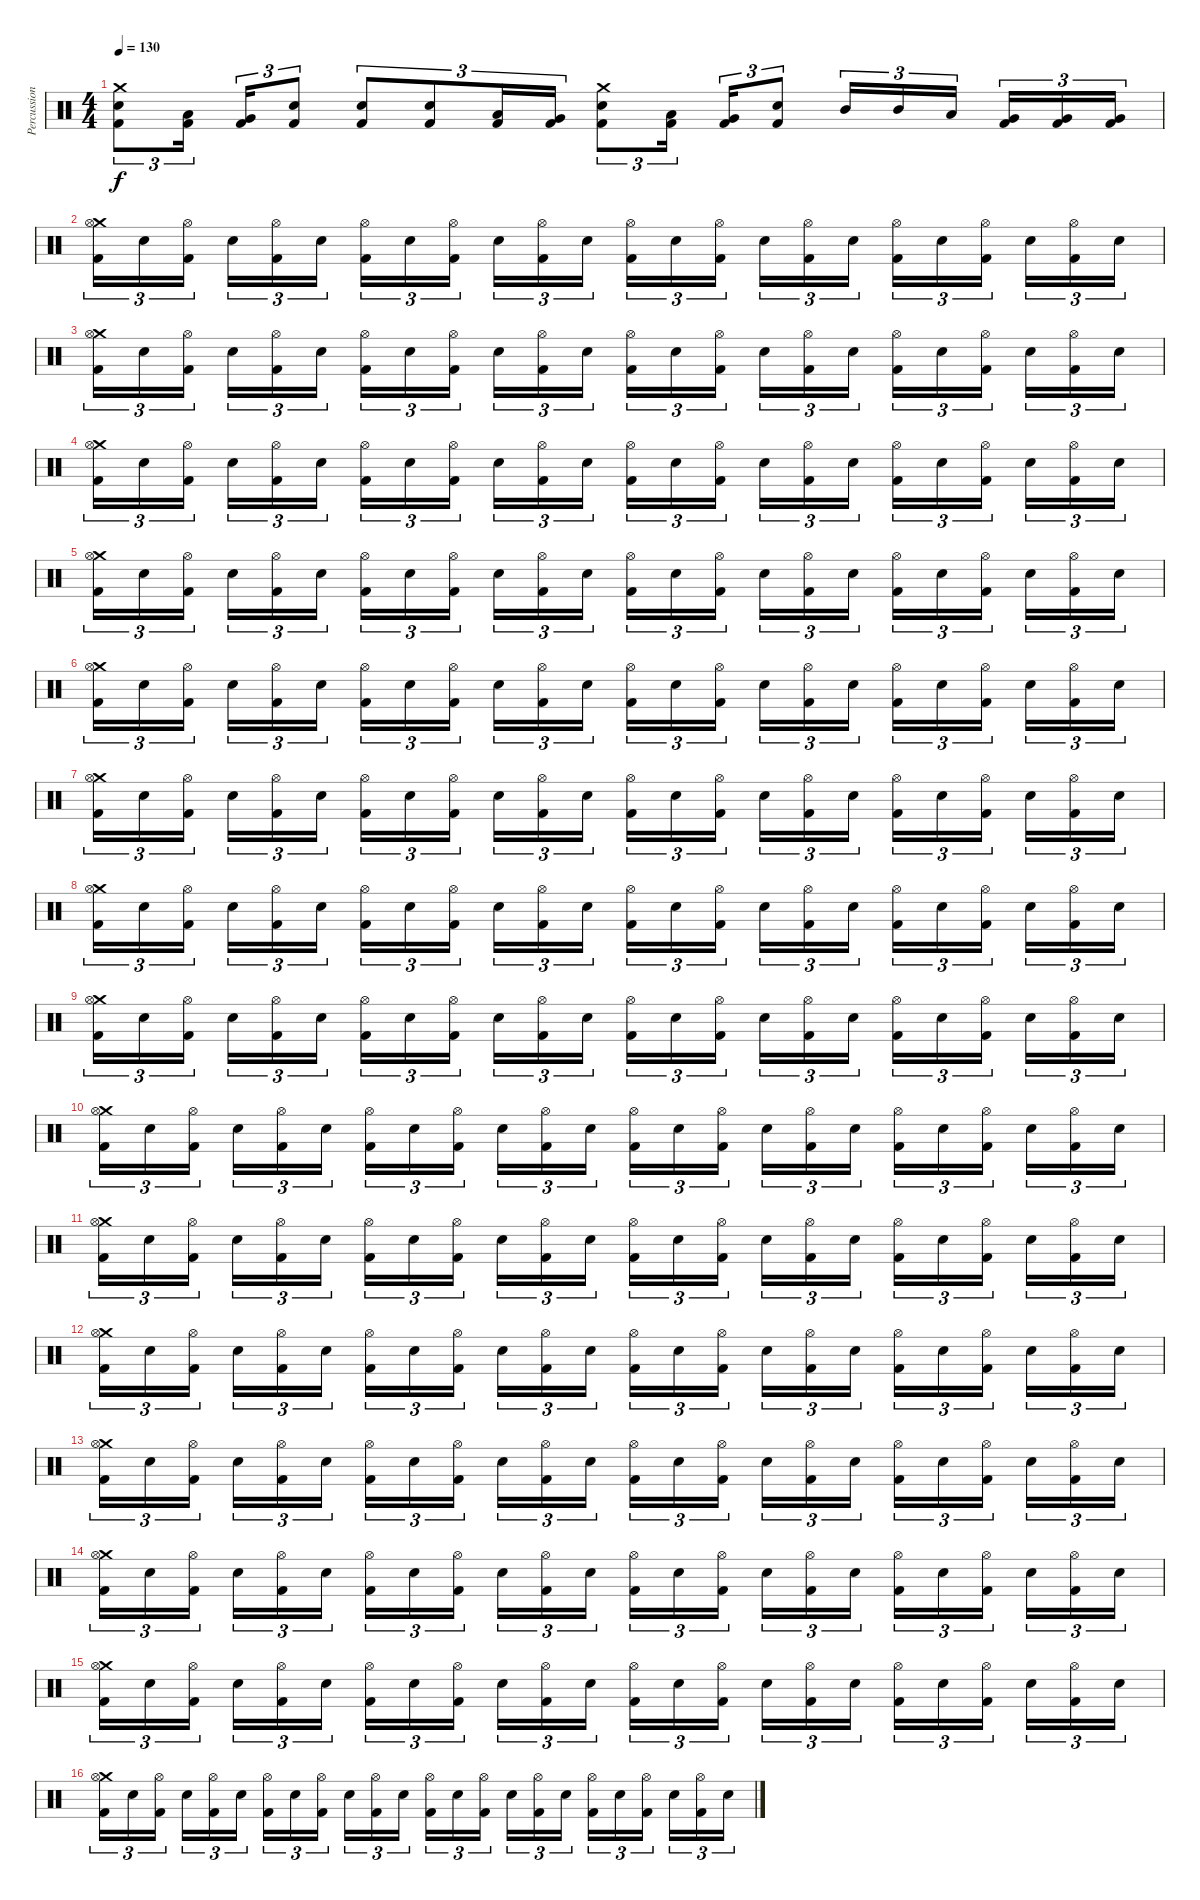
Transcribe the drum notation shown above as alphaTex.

\track ("Percussion" "Percussion") {instrument percussion}
\staff {score}
\articulation defaults
\ts (4 4)
\tempo 130
\clef neutral
\ks c
("Crash medium (hit)" "Snare (hit) 2" "Kick (hit) 2").8{tu (3 2) dy f} ("Low Tom (hit)" "Kick (hit) 2").16{tu (3 2)} ("Very Low Tom (hit)" "Kick (hit) 2").16{tu (3 2)} ("Snare (hit) 2" "Kick (hit) 2").8{tu (3 2)} ("Snare (hit) 2" "Kick (hit) 2").8{tu (3 2)} ("Snare (hit) 2" "Kick (hit) 2").8{tu (3 2)} ("Low Tom (hit)" "Kick (hit) 2").16{tu (3 2)} ("Very Low Tom (hit)" "Kick (hit) 2").16{tu (3 2)} ("Crash medium (hit)" "Snare (hit) 2" "Kick (hit) 2").8{tu (3 2)} ("Low Tom (hit)" "Kick (hit) 2").16{tu (3 2)} ("Very Low Tom (hit)" "Kick (hit) 2").16{tu (3 2)} ("Snare (hit) 2" "Kick (hit) 2").8{tu (3 2)} "Mid Tom (hit)".16{tu (3 2)} "Mid Tom (hit)".16{tu (3 2)} "Low Tom (hit)".16{tu (3 2)} ("Very Low Tom (hit)" "Kick (hit) 2").16{tu (3 2)} ("Very Low Tom (hit)" "Kick (hit) 2").16{tu (3 2)} ("Very Low Tom (hit)" "Kick (hit) 2").16{tu (3 2)} |
("Crash medium (hit)" "Hi-Hat (open)" "Kick (hit) 2").16{tu (3 2)} "Snare (hit) 2".16{tu (3 2)} ("Hi-Hat (open)" "Kick (hit) 2").16{tu (3 2)} "Snare (hit) 2".16{tu (3 2)} ("Hi-Hat (open)" "Kick (hit) 2").16{tu (3 2)} "Snare (hit) 2".16{tu (3 2)} ("Hi-Hat (open)" "Kick (hit) 2").16{tu (3 2)} "Snare (hit) 2".16{tu (3 2)} ("Hi-Hat (open)" "Kick (hit) 2").16{tu (3 2)} "Snare (hit) 2".16{tu (3 2)} ("Hi-Hat (open)" "Kick (hit) 2").16{tu (3 2)} "Snare (hit) 2".16{tu (3 2)} ("Hi-Hat (open)" "Kick (hit) 2").16{tu (3 2)} "Snare (hit) 2".16{tu (3 2)} ("Hi-Hat (open)" "Kick (hit) 2").16{tu (3 2)} "Snare (hit) 2".16{tu (3 2)} ("Hi-Hat (open)" "Kick (hit) 2").16{tu (3 2)} "Snare (hit) 2".16{tu (3 2)} ("Hi-Hat (open)" "Kick (hit) 2").16{tu (3 2)} "Snare (hit) 2".16{tu (3 2)} ("Hi-Hat (open)" "Kick (hit) 2").16{tu (3 2)} "Snare (hit) 2".16{tu (3 2)} ("Hi-Hat (open)" "Kick (hit) 2").16{tu (3 2)} "Snare (hit) 2".16{tu (3 2)} |
("Crash medium (hit)" "Hi-Hat (open)" "Kick (hit) 2").16{tu (3 2)} "Snare (hit) 2".16{tu (3 2)} ("Hi-Hat (open)" "Kick (hit) 2").16{tu (3 2)} "Snare (hit) 2".16{tu (3 2)} ("Hi-Hat (open)" "Kick (hit) 2").16{tu (3 2)} "Snare (hit) 2".16{tu (3 2)} ("Hi-Hat (open)" "Kick (hit) 2").16{tu (3 2)} "Snare (hit) 2".16{tu (3 2)} ("Hi-Hat (open)" "Kick (hit) 2").16{tu (3 2)} "Snare (hit) 2".16{tu (3 2)} ("Hi-Hat (open)" "Kick (hit) 2").16{tu (3 2)} "Snare (hit) 2".16{tu (3 2)} ("Hi-Hat (open)" "Kick (hit) 2").16{tu (3 2)} "Snare (hit) 2".16{tu (3 2)} ("Hi-Hat (open)" "Kick (hit) 2").16{tu (3 2)} "Snare (hit) 2".16{tu (3 2)} ("Hi-Hat (open)" "Kick (hit) 2").16{tu (3 2)} "Snare (hit) 2".16{tu (3 2)} ("Hi-Hat (open)" "Kick (hit) 2").16{tu (3 2)} "Snare (hit) 2".16{tu (3 2)} ("Hi-Hat (open)" "Kick (hit) 2").16{tu (3 2)} "Snare (hit) 2".16{tu (3 2)} ("Hi-Hat (open)" "Kick (hit) 2").16{tu (3 2)} "Snare (hit) 2".16{tu (3 2)} |
("Crash medium (hit)" "Hi-Hat (open)" "Kick (hit) 2").16{tu (3 2)} "Snare (hit) 2".16{tu (3 2)} ("Hi-Hat (open)" "Kick (hit) 2").16{tu (3 2)} "Snare (hit) 2".16{tu (3 2)} ("Hi-Hat (open)" "Kick (hit) 2").16{tu (3 2)} "Snare (hit) 2".16{tu (3 2)} ("Hi-Hat (open)" "Kick (hit) 2").16{tu (3 2)} "Snare (hit) 2".16{tu (3 2)} ("Hi-Hat (open)" "Kick (hit) 2").16{tu (3 2)} "Snare (hit) 2".16{tu (3 2)} ("Hi-Hat (open)" "Kick (hit) 2").16{tu (3 2)} "Snare (hit) 2".16{tu (3 2)} ("Hi-Hat (open)" "Kick (hit) 2").16{tu (3 2)} "Snare (hit) 2".16{tu (3 2)} ("Hi-Hat (open)" "Kick (hit) 2").16{tu (3 2)} "Snare (hit) 2".16{tu (3 2)} ("Hi-Hat (open)" "Kick (hit) 2").16{tu (3 2)} "Snare (hit) 2".16{tu (3 2)} ("Hi-Hat (open)" "Kick (hit) 2").16{tu (3 2)} "Snare (hit) 2".16{tu (3 2)} ("Hi-Hat (open)" "Kick (hit) 2").16{tu (3 2)} "Snare (hit) 2".16{tu (3 2)} ("Hi-Hat (open)" "Kick (hit) 2").16{tu (3 2)} "Snare (hit) 2".16{tu (3 2)} |
("Crash medium (hit)" "Hi-Hat (open)" "Kick (hit) 2").16{tu (3 2)} "Snare (hit) 2".16{tu (3 2)} ("Hi-Hat (open)" "Kick (hit) 2").16{tu (3 2)} "Snare (hit) 2".16{tu (3 2)} ("Hi-Hat (open)" "Kick (hit) 2").16{tu (3 2)} "Snare (hit) 2".16{tu (3 2)} ("Hi-Hat (open)" "Kick (hit) 2").16{tu (3 2)} "Snare (hit) 2".16{tu (3 2)} ("Hi-Hat (open)" "Kick (hit) 2").16{tu (3 2)} "Snare (hit) 2".16{tu (3 2)} ("Hi-Hat (open)" "Kick (hit) 2").16{tu (3 2)} "Snare (hit) 2".16{tu (3 2)} ("Hi-Hat (open)" "Kick (hit) 2").16{tu (3 2)} "Snare (hit) 2".16{tu (3 2)} ("Hi-Hat (open)" "Kick (hit) 2").16{tu (3 2)} "Snare (hit) 2".16{tu (3 2)} ("Hi-Hat (open)" "Kick (hit) 2").16{tu (3 2)} "Snare (hit) 2".16{tu (3 2)} ("Hi-Hat (open)" "Kick (hit) 2").16{tu (3 2)} "Snare (hit) 2".16{tu (3 2)} ("Hi-Hat (open)" "Kick (hit) 2").16{tu (3 2)} "Snare (hit) 2".16{tu (3 2)} ("Hi-Hat (open)" "Kick (hit) 2").16{tu (3 2)} "Snare (hit) 2".16{tu (3 2)} |
("Crash medium (hit)" "Hi-Hat (open)" "Kick (hit) 2").16{tu (3 2)} "Snare (hit) 2".16{tu (3 2)} ("Hi-Hat (open)" "Kick (hit) 2").16{tu (3 2)} "Snare (hit) 2".16{tu (3 2)} ("Hi-Hat (open)" "Kick (hit) 2").16{tu (3 2)} "Snare (hit) 2".16{tu (3 2)} ("Hi-Hat (open)" "Kick (hit) 2").16{tu (3 2)} "Snare (hit) 2".16{tu (3 2)} ("Hi-Hat (open)" "Kick (hit) 2").16{tu (3 2)} "Snare (hit) 2".16{tu (3 2)} ("Hi-Hat (open)" "Kick (hit) 2").16{tu (3 2)} "Snare (hit) 2".16{tu (3 2)} ("Hi-Hat (open)" "Kick (hit) 2").16{tu (3 2)} "Snare (hit) 2".16{tu (3 2)} ("Hi-Hat (open)" "Kick (hit) 2").16{tu (3 2)} "Snare (hit) 2".16{tu (3 2)} ("Hi-Hat (open)" "Kick (hit) 2").16{tu (3 2)} "Snare (hit) 2".16{tu (3 2)} ("Hi-Hat (open)" "Kick (hit) 2").16{tu (3 2)} "Snare (hit) 2".16{tu (3 2)} ("Hi-Hat (open)" "Kick (hit) 2").16{tu (3 2)} "Snare (hit) 2".16{tu (3 2)} ("Hi-Hat (open)" "Kick (hit) 2").16{tu (3 2)} "Snare (hit) 2".16{tu (3 2)} |
("Crash medium (hit)" "Hi-Hat (open)" "Kick (hit) 2").16{tu (3 2)} "Snare (hit) 2".16{tu (3 2)} ("Hi-Hat (open)" "Kick (hit) 2").16{tu (3 2)} "Snare (hit) 2".16{tu (3 2)} ("Hi-Hat (open)" "Kick (hit) 2").16{tu (3 2)} "Snare (hit) 2".16{tu (3 2)} ("Hi-Hat (open)" "Kick (hit) 2").16{tu (3 2)} "Snare (hit) 2".16{tu (3 2)} ("Hi-Hat (open)" "Kick (hit) 2").16{tu (3 2)} "Snare (hit) 2".16{tu (3 2)} ("Hi-Hat (open)" "Kick (hit) 2").16{tu (3 2)} "Snare (hit) 2".16{tu (3 2)} ("Hi-Hat (open)" "Kick (hit) 2").16{tu (3 2)} "Snare (hit) 2".16{tu (3 2)} ("Hi-Hat (open)" "Kick (hit) 2").16{tu (3 2)} "Snare (hit) 2".16{tu (3 2)} ("Hi-Hat (open)" "Kick (hit) 2").16{tu (3 2)} "Snare (hit) 2".16{tu (3 2)} ("Hi-Hat (open)" "Kick (hit) 2").16{tu (3 2)} "Snare (hit) 2".16{tu (3 2)} ("Hi-Hat (open)" "Kick (hit) 2").16{tu (3 2)} "Snare (hit) 2".16{tu (3 2)} ("Hi-Hat (open)" "Kick (hit) 2").16{tu (3 2)} "Snare (hit) 2".16{tu (3 2)} |
("Crash medium (hit)" "Hi-Hat (open)" "Kick (hit) 2").16{tu (3 2)} "Snare (hit) 2".16{tu (3 2)} ("Hi-Hat (open)" "Kick (hit) 2").16{tu (3 2)} "Snare (hit) 2".16{tu (3 2)} ("Hi-Hat (open)" "Kick (hit) 2").16{tu (3 2)} "Snare (hit) 2".16{tu (3 2)} ("Hi-Hat (open)" "Kick (hit) 2").16{tu (3 2)} "Snare (hit) 2".16{tu (3 2)} ("Hi-Hat (open)" "Kick (hit) 2").16{tu (3 2)} "Snare (hit) 2".16{tu (3 2)} ("Hi-Hat (open)" "Kick (hit) 2").16{tu (3 2)} "Snare (hit) 2".16{tu (3 2)} ("Hi-Hat (open)" "Kick (hit) 2").16{tu (3 2)} "Snare (hit) 2".16{tu (3 2)} ("Hi-Hat (open)" "Kick (hit) 2").16{tu (3 2)} "Snare (hit) 2".16{tu (3 2)} ("Hi-Hat (open)" "Kick (hit) 2").16{tu (3 2)} "Snare (hit) 2".16{tu (3 2)} ("Hi-Hat (open)" "Kick (hit) 2").16{tu (3 2)} "Snare (hit) 2".16{tu (3 2)} ("Hi-Hat (open)" "Kick (hit) 2").16{tu (3 2)} "Snare (hit) 2".16{tu (3 2)} ("Hi-Hat (open)" "Kick (hit) 2").16{tu (3 2)} "Snare (hit) 2".16{tu (3 2)} |
("Crash medium (hit)" "Hi-Hat (open)" "Kick (hit) 2").16{tu (3 2)} "Snare (hit) 2".16{tu (3 2)} ("Hi-Hat (open)" "Kick (hit) 2").16{tu (3 2)} "Snare (hit) 2".16{tu (3 2)} ("Hi-Hat (open)" "Kick (hit) 2").16{tu (3 2)} "Snare (hit) 2".16{tu (3 2)} ("Hi-Hat (open)" "Kick (hit) 2").16{tu (3 2)} "Snare (hit) 2".16{tu (3 2)} ("Hi-Hat (open)" "Kick (hit) 2").16{tu (3 2)} "Snare (hit) 2".16{tu (3 2)} ("Hi-Hat (open)" "Kick (hit) 2").16{tu (3 2)} "Snare (hit) 2".16{tu (3 2)} ("Hi-Hat (open)" "Kick (hit) 2").16{tu (3 2)} "Snare (hit) 2".16{tu (3 2)} ("Hi-Hat (open)" "Kick (hit) 2").16{tu (3 2)} "Snare (hit) 2".16{tu (3 2)} ("Hi-Hat (open)" "Kick (hit) 2").16{tu (3 2)} "Snare (hit) 2".16{tu (3 2)} ("Hi-Hat (open)" "Kick (hit) 2").16{tu (3 2)} "Snare (hit) 2".16{tu (3 2)} ("Hi-Hat (open)" "Kick (hit) 2").16{tu (3 2)} "Snare (hit) 2".16{tu (3 2)} ("Hi-Hat (open)" "Kick (hit) 2").16{tu (3 2)} "Snare (hit) 2".16{tu (3 2)} |
("Crash medium (hit)" "Hi-Hat (open)" "Kick (hit) 2").16{tu (3 2)} "Snare (hit) 2".16{tu (3 2)} ("Hi-Hat (open)" "Kick (hit) 2").16{tu (3 2)} "Snare (hit) 2".16{tu (3 2)} ("Hi-Hat (open)" "Kick (hit) 2").16{tu (3 2)} "Snare (hit) 2".16{tu (3 2)} ("Hi-Hat (open)" "Kick (hit) 2").16{tu (3 2)} "Snare (hit) 2".16{tu (3 2)} ("Hi-Hat (open)" "Kick (hit) 2").16{tu (3 2)} "Snare (hit) 2".16{tu (3 2)} ("Hi-Hat (open)" "Kick (hit) 2").16{tu (3 2)} "Snare (hit) 2".16{tu (3 2)} ("Hi-Hat (open)" "Kick (hit) 2").16{tu (3 2)} "Snare (hit) 2".16{tu (3 2)} ("Hi-Hat (open)" "Kick (hit) 2").16{tu (3 2)} "Snare (hit) 2".16{tu (3 2)} ("Hi-Hat (open)" "Kick (hit) 2").16{tu (3 2)} "Snare (hit) 2".16{tu (3 2)} ("Hi-Hat (open)" "Kick (hit) 2").16{tu (3 2)} "Snare (hit) 2".16{tu (3 2)} ("Hi-Hat (open)" "Kick (hit) 2").16{tu (3 2)} "Snare (hit) 2".16{tu (3 2)} ("Hi-Hat (open)" "Kick (hit) 2").16{tu (3 2)} "Snare (hit) 2".16{tu (3 2)} |
("Crash medium (hit)" "Hi-Hat (open)" "Kick (hit) 2").16{tu (3 2)} "Snare (hit) 2".16{tu (3 2)} ("Hi-Hat (open)" "Kick (hit) 2").16{tu (3 2)} "Snare (hit) 2".16{tu (3 2)} ("Hi-Hat (open)" "Kick (hit) 2").16{tu (3 2)} "Snare (hit) 2".16{tu (3 2)} ("Hi-Hat (open)" "Kick (hit) 2").16{tu (3 2)} "Snare (hit) 2".16{tu (3 2)} ("Hi-Hat (open)" "Kick (hit) 2").16{tu (3 2)} "Snare (hit) 2".16{tu (3 2)} ("Hi-Hat (open)" "Kick (hit) 2").16{tu (3 2)} "Snare (hit) 2".16{tu (3 2)} ("Hi-Hat (open)" "Kick (hit) 2").16{tu (3 2)} "Snare (hit) 2".16{tu (3 2)} ("Hi-Hat (open)" "Kick (hit) 2").16{tu (3 2)} "Snare (hit) 2".16{tu (3 2)} ("Hi-Hat (open)" "Kick (hit) 2").16{tu (3 2)} "Snare (hit) 2".16{tu (3 2)} ("Hi-Hat (open)" "Kick (hit) 2").16{tu (3 2)} "Snare (hit) 2".16{tu (3 2)} ("Hi-Hat (open)" "Kick (hit) 2").16{tu (3 2)} "Snare (hit) 2".16{tu (3 2)} ("Hi-Hat (open)" "Kick (hit) 2").16{tu (3 2)} "Snare (hit) 2".16{tu (3 2)} |
("Crash medium (hit)" "Hi-Hat (open)" "Kick (hit) 2").16{tu (3 2)} "Snare (hit) 2".16{tu (3 2)} ("Hi-Hat (open)" "Kick (hit) 2").16{tu (3 2)} "Snare (hit) 2".16{tu (3 2)} ("Hi-Hat (open)" "Kick (hit) 2").16{tu (3 2)} "Snare (hit) 2".16{tu (3 2)} ("Hi-Hat (open)" "Kick (hit) 2").16{tu (3 2)} "Snare (hit) 2".16{tu (3 2)} ("Hi-Hat (open)" "Kick (hit) 2").16{tu (3 2)} "Snare (hit) 2".16{tu (3 2)} ("Hi-Hat (open)" "Kick (hit) 2").16{tu (3 2)} "Snare (hit) 2".16{tu (3 2)} ("Hi-Hat (open)" "Kick (hit) 2").16{tu (3 2)} "Snare (hit) 2".16{tu (3 2)} ("Hi-Hat (open)" "Kick (hit) 2").16{tu (3 2)} "Snare (hit) 2".16{tu (3 2)} ("Hi-Hat (open)" "Kick (hit) 2").16{tu (3 2)} "Snare (hit) 2".16{tu (3 2)} ("Hi-Hat (open)" "Kick (hit) 2").16{tu (3 2)} "Snare (hit) 2".16{tu (3 2)} ("Hi-Hat (open)" "Kick (hit) 2").16{tu (3 2)} "Snare (hit) 2".16{tu (3 2)} ("Hi-Hat (open)" "Kick (hit) 2").16{tu (3 2)} "Snare (hit) 2".16{tu (3 2)} |
("Crash medium (hit)" "Hi-Hat (open)" "Kick (hit) 2").16{tu (3 2)} "Snare (hit) 2".16{tu (3 2)} ("Hi-Hat (open)" "Kick (hit) 2").16{tu (3 2)} "Snare (hit) 2".16{tu (3 2)} ("Hi-Hat (open)" "Kick (hit) 2").16{tu (3 2)} "Snare (hit) 2".16{tu (3 2)} ("Hi-Hat (open)" "Kick (hit) 2").16{tu (3 2)} "Snare (hit) 2".16{tu (3 2)} ("Hi-Hat (open)" "Kick (hit) 2").16{tu (3 2)} "Snare (hit) 2".16{tu (3 2)} ("Hi-Hat (open)" "Kick (hit) 2").16{tu (3 2)} "Snare (hit) 2".16{tu (3 2)} ("Hi-Hat (open)" "Kick (hit) 2").16{tu (3 2)} "Snare (hit) 2".16{tu (3 2)} ("Hi-Hat (open)" "Kick (hit) 2").16{tu (3 2)} "Snare (hit) 2".16{tu (3 2)} ("Hi-Hat (open)" "Kick (hit) 2").16{tu (3 2)} "Snare (hit) 2".16{tu (3 2)} ("Hi-Hat (open)" "Kick (hit) 2").16{tu (3 2)} "Snare (hit) 2".16{tu (3 2)} ("Hi-Hat (open)" "Kick (hit) 2").16{tu (3 2)} "Snare (hit) 2".16{tu (3 2)} ("Hi-Hat (open)" "Kick (hit) 2").16{tu (3 2)} "Snare (hit) 2".16{tu (3 2)} |
("Crash medium (hit)" "Hi-Hat (open)" "Kick (hit) 2").16{tu (3 2)} "Snare (hit) 2".16{tu (3 2)} ("Hi-Hat (open)" "Kick (hit) 2").16{tu (3 2)} "Snare (hit) 2".16{tu (3 2)} ("Hi-Hat (open)" "Kick (hit) 2").16{tu (3 2)} "Snare (hit) 2".16{tu (3 2)} ("Hi-Hat (open)" "Kick (hit) 2").16{tu (3 2)} "Snare (hit) 2".16{tu (3 2)} ("Hi-Hat (open)" "Kick (hit) 2").16{tu (3 2)} "Snare (hit) 2".16{tu (3 2)} ("Hi-Hat (open)" "Kick (hit) 2").16{tu (3 2)} "Snare (hit) 2".16{tu (3 2)} ("Hi-Hat (open)" "Kick (hit) 2").16{tu (3 2)} "Snare (hit) 2".16{tu (3 2)} ("Hi-Hat (open)" "Kick (hit) 2").16{tu (3 2)} "Snare (hit) 2".16{tu (3 2)} ("Hi-Hat (open)" "Kick (hit) 2").16{tu (3 2)} "Snare (hit) 2".16{tu (3 2)} ("Hi-Hat (open)" "Kick (hit) 2").16{tu (3 2)} "Snare (hit) 2".16{tu (3 2)} ("Hi-Hat (open)" "Kick (hit) 2").16{tu (3 2)} "Snare (hit) 2".16{tu (3 2)} ("Hi-Hat (open)" "Kick (hit) 2").16{tu (3 2)} "Snare (hit) 2".16{tu (3 2)} |
("Crash medium (hit)" "Hi-Hat (open)" "Kick (hit) 2").16{tu (3 2)} "Snare (hit) 2".16{tu (3 2)} ("Hi-Hat (open)" "Kick (hit) 2").16{tu (3 2)} "Snare (hit) 2".16{tu (3 2)} ("Hi-Hat (open)" "Kick (hit) 2").16{tu (3 2)} "Snare (hit) 2".16{tu (3 2)} ("Hi-Hat (open)" "Kick (hit) 2").16{tu (3 2)} "Snare (hit) 2".16{tu (3 2)} ("Hi-Hat (open)" "Kick (hit) 2").16{tu (3 2)} "Snare (hit) 2".16{tu (3 2)} ("Hi-Hat (open)" "Kick (hit) 2").16{tu (3 2)} "Snare (hit) 2".16{tu (3 2)} ("Hi-Hat (open)" "Kick (hit) 2").16{tu (3 2)} "Snare (hit) 2".16{tu (3 2)} ("Hi-Hat (open)" "Kick (hit) 2").16{tu (3 2)} "Snare (hit) 2".16{tu (3 2)} ("Hi-Hat (open)" "Kick (hit) 2").16{tu (3 2)} "Snare (hit) 2".16{tu (3 2)} ("Hi-Hat (open)" "Kick (hit) 2").16{tu (3 2)} "Snare (hit) 2".16{tu (3 2)} ("Hi-Hat (open)" "Kick (hit) 2").16{tu (3 2)} "Snare (hit) 2".16{tu (3 2)} ("Hi-Hat (open)" "Kick (hit) 2").16{tu (3 2)} "Snare (hit) 2".16{tu (3 2)} |
("Crash medium (hit)" "Hi-Hat (open)" "Kick (hit) 2").16{tu (3 2)} "Snare (hit) 2".16{tu (3 2)} ("Hi-Hat (open)" "Kick (hit) 2").16{tu (3 2)} "Snare (hit) 2".16{tu (3 2)} ("Hi-Hat (open)" "Kick (hit) 2").16{tu (3 2)} "Snare (hit) 2".16{tu (3 2)} ("Hi-Hat (open)" "Kick (hit) 2").16{tu (3 2)} "Snare (hit) 2".16{tu (3 2)} ("Hi-Hat (open)" "Kick (hit) 2").16{tu (3 2)} "Snare (hit) 2".16{tu (3 2)} ("Hi-Hat (open)" "Kick (hit) 2").16{tu (3 2)} "Snare (hit) 2".16{tu (3 2)} ("Hi-Hat (open)" "Kick (hit) 2").16{tu (3 2)} "Snare (hit) 2".16{tu (3 2)} ("Hi-Hat (open)" "Kick (hit) 2").16{tu (3 2)} "Snare (hit) 2".16{tu (3 2)} ("Hi-Hat (open)" "Kick (hit) 2").16{tu (3 2)} "Snare (hit) 2".16{tu (3 2)} ("Hi-Hat (open)" "Kick (hit) 2").16{tu (3 2)} "Snare (hit) 2".16{tu (3 2)} ("Hi-Hat (open)" "Kick (hit) 2").16{tu (3 2)} "Snare (hit) 2".16{tu (3 2)} ("Hi-Hat (open)" "Kick (hit) 2").16{tu (3 2)} "Snare (hit) 2".16{tu (3 2)}
